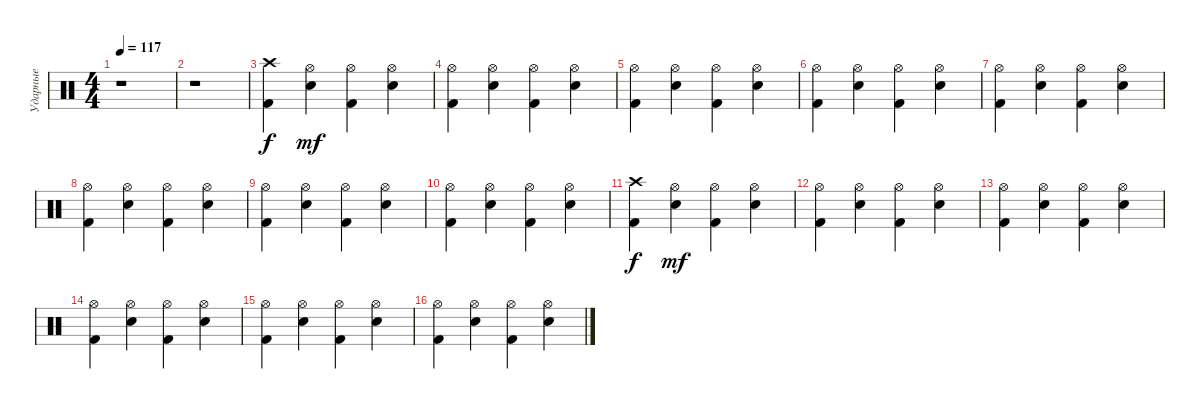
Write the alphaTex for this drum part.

\track ("Ударные" "Ударные") {instrument percussion}
\staff {score}
\articulation defaults
\ts (4 4)
\tempo 117
\clef neutral
\ks c
r.1{dy f} |
r.1 |
("Crash high (hit)" "Kick (hit) 2").4 ("Hi-Hat (open)" "Electric Snare (hit)").4{dy mf} ("Hi-Hat (open)" "Kick (hit) 2").4 ("Hi-Hat (open)" "Electric Snare (hit)").4 |
("Hi-Hat (open)" "Kick (hit) 2").4 ("Hi-Hat (open)" "Electric Snare (hit)").4 ("Hi-Hat (open)" "Kick (hit) 2").4 ("Hi-Hat (open)" "Electric Snare (hit)").4 |
("Hi-Hat (open)" "Kick (hit) 2").4 ("Hi-Hat (open)" "Electric Snare (hit)").4 ("Hi-Hat (open)" "Kick (hit) 2").4 ("Hi-Hat (open)" "Electric Snare (hit)").4 |
("Hi-Hat (open)" "Kick (hit) 2").4 ("Hi-Hat (open)" "Electric Snare (hit)").4 ("Hi-Hat (open)" "Kick (hit) 2").4 ("Hi-Hat (open)" "Electric Snare (hit)").4 |
("Hi-Hat (open)" "Kick (hit) 2").4 ("Hi-Hat (open)" "Electric Snare (hit)").4 ("Hi-Hat (open)" "Kick (hit) 2").4 ("Hi-Hat (open)" "Electric Snare (hit)").4 |
("Hi-Hat (open)" "Kick (hit) 2").4 ("Hi-Hat (open)" "Electric Snare (hit)").4 ("Hi-Hat (open)" "Kick (hit) 2").4 ("Hi-Hat (open)" "Electric Snare (hit)").4 |
("Hi-Hat (open)" "Kick (hit) 2").4 ("Hi-Hat (open)" "Electric Snare (hit)").4 ("Hi-Hat (open)" "Kick (hit) 2").4 ("Hi-Hat (open)" "Electric Snare (hit)").4 |
("Hi-Hat (open)" "Kick (hit) 2").4 ("Hi-Hat (open)" "Electric Snare (hit)").4 ("Hi-Hat (open)" "Kick (hit) 2").4 ("Hi-Hat (open)" "Electric Snare (hit)").4 |
("Crash high (hit)" "Kick (hit) 2").4{dy f} ("Hi-Hat (open)" "Electric Snare (hit)").4{dy mf} ("Hi-Hat (open)" "Kick (hit) 2").4 ("Hi-Hat (open)" "Electric Snare (hit)").4 |
("Hi-Hat (open)" "Kick (hit) 2").4 ("Hi-Hat (open)" "Electric Snare (hit)").4 ("Hi-Hat (open)" "Kick (hit) 2").4 ("Hi-Hat (open)" "Electric Snare (hit)").4 |
("Hi-Hat (open)" "Kick (hit) 2").4 ("Hi-Hat (open)" "Electric Snare (hit)").4 ("Hi-Hat (open)" "Kick (hit) 2").4 ("Hi-Hat (open)" "Electric Snare (hit)").4 |
("Hi-Hat (open)" "Kick (hit) 2").4 ("Hi-Hat (open)" "Electric Snare (hit)").4 ("Hi-Hat (open)" "Kick (hit) 2").4 ("Hi-Hat (open)" "Electric Snare (hit)").4 |
("Hi-Hat (open)" "Kick (hit) 2").4 ("Hi-Hat (open)" "Electric Snare (hit)").4 ("Hi-Hat (open)" "Kick (hit) 2").4 ("Hi-Hat (open)" "Electric Snare (hit)").4 |
("Hi-Hat (open)" "Kick (hit) 2").4 ("Hi-Hat (open)" "Electric Snare (hit)").4 ("Hi-Hat (open)" "Kick (hit) 2").4 ("Hi-Hat (open)" "Electric Snare (hit)").4
